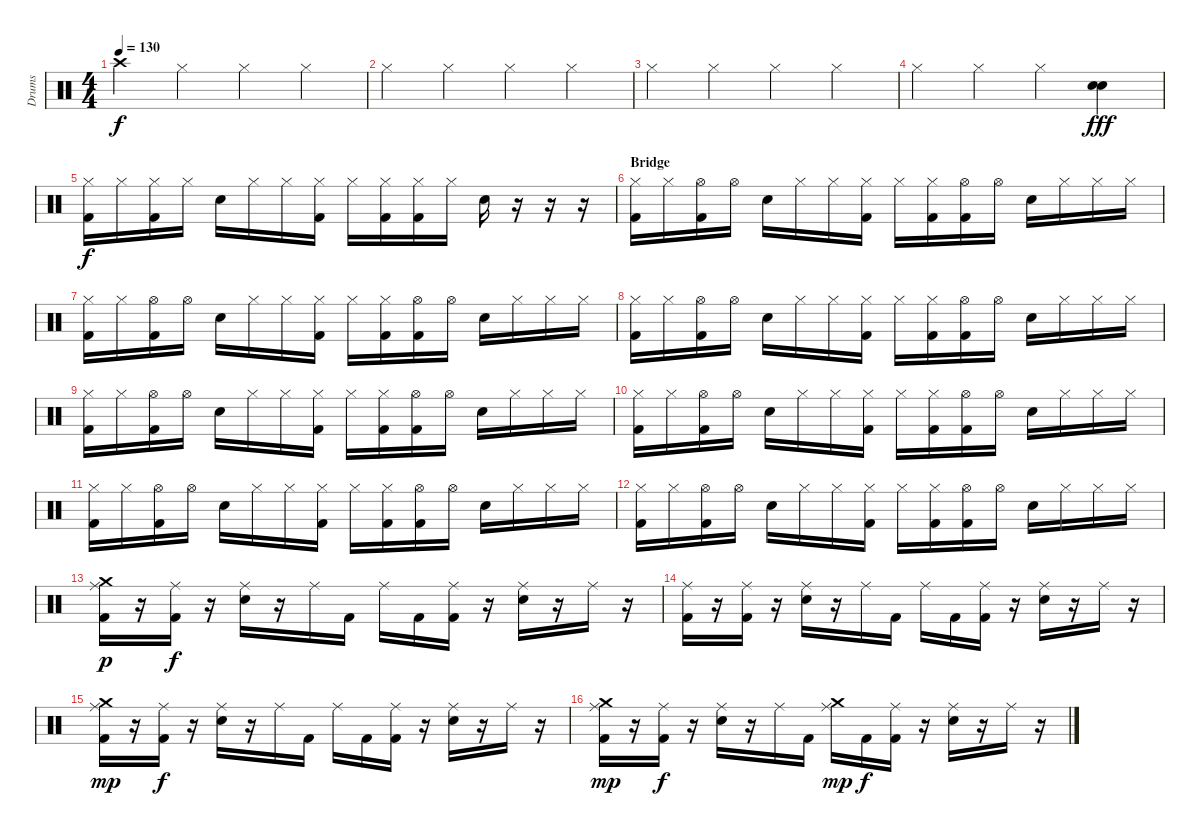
\track ("Drums" "Drums") {instrument percussion}
\staff {score}
\articulation defaults
\ts (4 4)
\tempo 130
\clef neutral
\ks c "Crash high (hit)".4{dy f} "Hi-Hat (closed)".4 "Hi-Hat (closed)".4 "Hi-Hat (closed)".4
|
"Hi-Hat (closed)".4 "Hi-Hat (closed)".4 "Hi-Hat (closed)".4 "Hi-Hat (closed)".4 |
"Hi-Hat (closed)".4 "Hi-Hat (closed)".4 "Hi-Hat (closed)".4 "Hi-Hat (closed)".4 |
"Hi-Hat (closed)".4 "Hi-Hat (closed)".4 "Hi-Hat (closed)".4 ("Electric Snare (hit)" "Electric Snare (hit)").4{dy fff} |
("Hi-Hat (closed)" "Kick (hit) 2").16{dy f} "Hi-Hat (closed)".16 ("Hi-Hat (closed)" "Kick (hit) 2").16 "Hi-Hat (closed)".16 "Snare (hit) 2".16 "Hi-Hat (closed)".16 "Hi-Hat (closed)".16 ("Hi-Hat (closed)" "Kick (hit) 2").16 "Hi-Hat (closed)".16 ("Hi-Hat (closed)" "Kick (hit) 2").16 ("Hi-Hat (closed)" "Kick (hit) 2").16 "Hi-Hat (closed)".16 "Snare (hit) 2".16 r.16 r.16 r.16 |
\section ("" "Bridge")
("Hi-Hat (closed)" "Kick (hit) 2").16 "Hi-Hat (closed)".16 ("Hi-Hat (open)" "Kick (hit) 2").16 "Hi-Hat (open)".16 "Snare (hit) 2".16 "Hi-Hat (closed)".16 "Hi-Hat (closed)".16 ("Hi-Hat (closed)" "Kick (hit) 2").16 "Hi-Hat (closed)".16 ("Hi-Hat (closed)" "Kick (hit) 2").16 ("Hi-Hat (open)" "Kick (hit) 2").16 "Hi-Hat (open)".16 "Snare (hit) 2".16 "Hi-Hat (closed)".16 "Hi-Hat (closed)".16 "Hi-Hat (closed)".16 |
("Hi-Hat (closed)" "Kick (hit) 2").16 "Hi-Hat (closed)".16 ("Hi-Hat (open)" "Kick (hit) 2").16 "Hi-Hat (open)".16 "Snare (hit) 2".16 "Hi-Hat (closed)".16 "Hi-Hat (closed)".16 ("Hi-Hat (closed)" "Kick (hit) 2").16 "Hi-Hat (closed)".16 ("Hi-Hat (closed)" "Kick (hit) 2").16 ("Hi-Hat (open)" "Kick (hit) 2").16 "Hi-Hat (open)".16 "Snare (hit) 2".16 "Hi-Hat (closed)".16 "Hi-Hat (closed)".16 "Hi-Hat (closed)".16 |
("Hi-Hat (closed)" "Kick (hit) 2").16 "Hi-Hat (closed)".16 ("Hi-Hat (open)" "Kick (hit) 2").16 "Hi-Hat (open)".16 "Snare (hit) 2".16 "Hi-Hat (closed)".16 "Hi-Hat (closed)".16 ("Hi-Hat (closed)" "Kick (hit) 2").16 "Hi-Hat (closed)".16 ("Hi-Hat (closed)" "Kick (hit) 2").16 ("Hi-Hat (open)" "Kick (hit) 2").16 "Hi-Hat (open)".16 "Snare (hit) 2".16 "Hi-Hat (closed)".16 "Hi-Hat (closed)".16 "Hi-Hat (closed)".16 |
("Hi-Hat (closed)" "Kick (hit) 2").16 "Hi-Hat (closed)".16 ("Hi-Hat (open)" "Kick (hit) 2").16 "Hi-Hat (open)".16 "Snare (hit) 2".16 "Hi-Hat (closed)".16 "Hi-Hat (closed)".16 ("Hi-Hat (closed)" "Kick (hit) 2").16 "Hi-Hat (closed)".16 ("Hi-Hat (closed)" "Kick (hit) 2").16 ("Hi-Hat (open)" "Kick (hit) 2").16 "Hi-Hat (open)".16 "Snare (hit) 2".16 "Hi-Hat (closed)".16 "Hi-Hat (closed)".16 "Hi-Hat (closed)".16 |
("Hi-Hat (closed)" "Kick (hit) 2").16 "Hi-Hat (closed)".16 ("Hi-Hat (open)" "Kick (hit) 2").16 "Hi-Hat (open)".16 "Snare (hit) 2".16 "Hi-Hat (closed)".16 "Hi-Hat (closed)".16 ("Hi-Hat (closed)" "Kick (hit) 2").16 "Hi-Hat (closed)".16 ("Hi-Hat (closed)" "Kick (hit) 2").16 ("Hi-Hat (open)" "Kick (hit) 2").16 "Hi-Hat (open)".16 "Snare (hit) 2".16 "Hi-Hat (closed)".16 "Hi-Hat (closed)".16 "Hi-Hat (closed)".16 |
("Hi-Hat (closed)" "Kick (hit) 2").16 "Hi-Hat (closed)".16 ("Hi-Hat (open)" "Kick (hit) 2").16 "Hi-Hat (open)".16 "Snare (hit) 2".16 "Hi-Hat (closed)".16 "Hi-Hat (closed)".16 ("Hi-Hat (closed)" "Kick (hit) 2").16 "Hi-Hat (closed)".16 ("Hi-Hat (closed)" "Kick (hit) 2").16 ("Hi-Hat (open)" "Kick (hit) 2").16 "Hi-Hat (open)".16 "Snare (hit) 2".16 "Hi-Hat (closed)".16 "Hi-Hat (closed)".16 "Hi-Hat (closed)".16 |
("Hi-Hat (closed)" "Kick (hit) 2").16 "Hi-Hat (closed)".16 ("Hi-Hat (open)" "Kick (hit) 2").16 "Hi-Hat (open)".16 "Snare (hit) 2".16 "Hi-Hat (closed)".16 "Hi-Hat (closed)".16 ("Hi-Hat (closed)" "Kick (hit) 2").16 "Hi-Hat (closed)".16 ("Hi-Hat (closed)" "Kick (hit) 2").16 ("Hi-Hat (open)" "Kick (hit) 2").16 "Hi-Hat (open)".16 "Snare (hit) 2".16 "Hi-Hat (closed)".16 "Hi-Hat (closed)".16 "Hi-Hat (closed)".16 |
("Crash medium (hit)" "Ride (middle)" "Kick (hit) 2").16{dy p} r.16 ("Ride (middle)" "Kick (hit) 2").16{dy f} r.16 ("Ride (middle)" "Snare (hit) 2").16 r.16 "Ride (middle)".16 "Kick (hit) 2".16 "Ride (middle)".16 "Kick (hit) 2".16 ("Ride (middle)" "Kick (hit) 2").16 r.16 ("Ride (middle)" "Snare (hit) 2").16 r.16 "Ride (middle)".16 r.16 |
("Ride (middle)" "Kick (hit) 2").16 r.16 ("Ride (middle)" "Kick (hit) 2").16 r.16 ("Ride (middle)" "Snare (hit) 2").16 r.16 "Ride (middle)".16 "Kick (hit) 2".16 "Ride (middle)".16 "Kick (hit) 2".16 ("Ride (middle)" "Kick (hit) 2").16 r.16 ("Ride (middle)" "Snare (hit) 2").16 r.16 "Ride (middle)".16 r.16 |
("Crash medium (hit)" "Ride (middle)" "Kick (hit) 2").16{dy mp} r.16 ("Ride (middle)" "Kick (hit) 2").16{dy f} r.16 ("Ride (middle)" "Snare (hit) 2").16 r.16 "Ride (middle)".16 "Kick (hit) 2".16 "Ride (middle)".16 "Kick (hit) 2".16 ("Ride (middle)" "Kick (hit) 2").16 r.16 ("Ride (middle)" "Snare (hit) 2").16 r.16 "Ride (middle)".16 r.16 |
("Crash medium (hit)" "Ride (middle)" "Kick (hit) 2").16{dy mp} r.16 ("Ride (middle)" "Kick (hit) 2").16{dy f} r.16 ("Ride (middle)" "Snare (hit) 2").16 r.16 "Ride (middle)".16 "Kick (hit) 2".16 ("Crash medium (hit)" "Ride (middle)").16{dy mp} "Kick (hit) 2".16{dy f} ("Ride (middle)" "Kick (hit) 2").16 r.16 ("Ride (middle)" "Snare (hit) 2").16 r.16 "Ride (middle)".16 r.16
